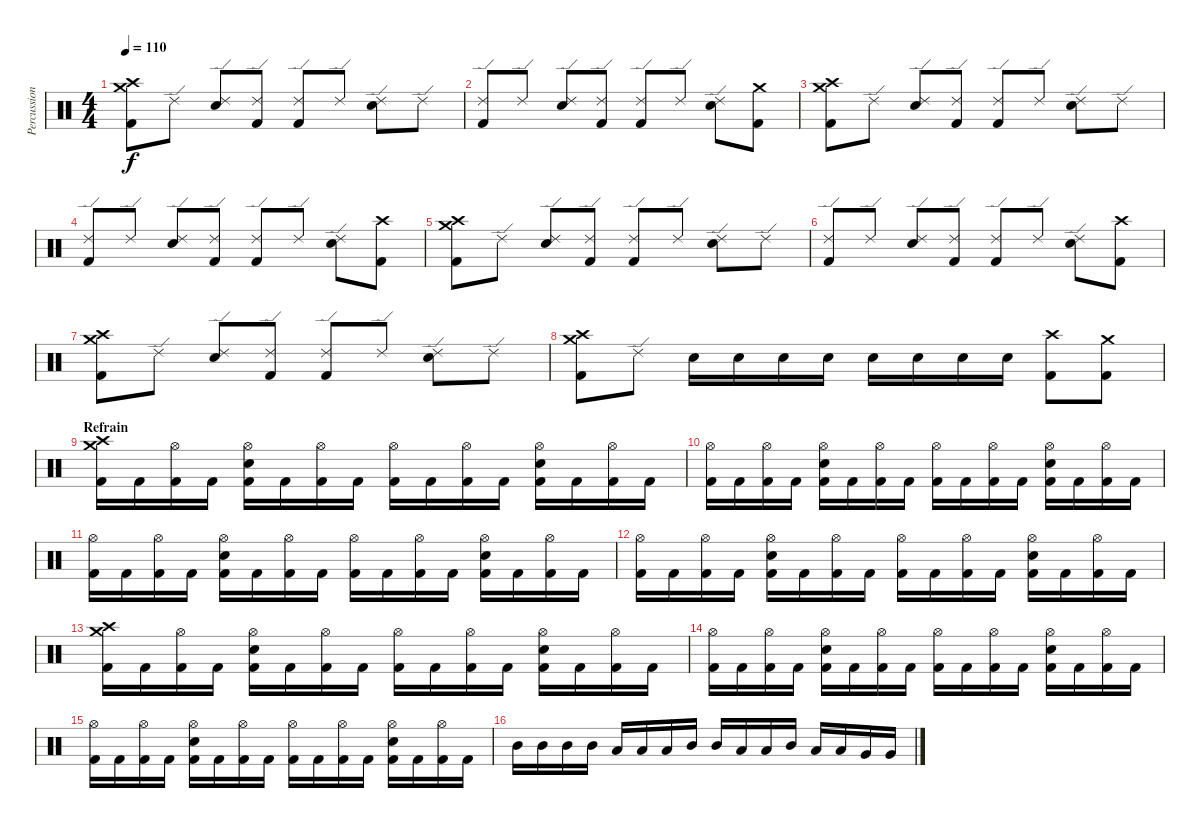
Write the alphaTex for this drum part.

\track ("Percussions" "Percussion") {instrument percussion}
\staff {score}
\articulation defaults
\ts (4 4)
\tempo 110
\clef neutral
\ks c
("Crash high (hit)" "Crash medium (hit)" "Kick (hit) 2").8{dy f} "Ride (edge) 2".8 ("Ride (edge) 2" "Electric Snare (hit)").8 ("Ride (edge) 2" "Kick (hit) 2").8 ("Ride (edge) 2" "Kick (hit) 2").8 "Ride (edge) 2".8 ("Ride (edge) 2" "Electric Snare (hit)").8 "Ride (edge) 2".8 |
("Ride (edge) 2" "Kick (hit) 2").8 "Ride (edge) 2".8 ("Ride (edge) 2" "Electric Snare (hit)").8 ("Ride (edge) 2" "Kick (hit) 2").8 ("Ride (edge) 2" "Kick (hit) 2").8 "Ride (edge) 2".8 ("Ride (edge) 2" "Electric Snare (hit)").8 ("Crash medium (hit)" "Kick (hit) 2").8 |
("Crash high (hit)" "Crash medium (hit)" "Kick (hit) 2").8 "Ride (edge) 2".8 ("Ride (edge) 2" "Electric Snare (hit)").8 ("Ride (edge) 2" "Kick (hit) 2").8 ("Ride (edge) 2" "Kick (hit) 2").8 "Ride (edge) 2".8 ("Ride (edge) 2" "Electric Snare (hit)").8 "Ride (edge) 2".8 |
("Ride (edge) 2" "Kick (hit) 2").8 "Ride (edge) 2".8 ("Ride (edge) 2" "Electric Snare (hit)").8 ("Ride (edge) 2" "Kick (hit) 2").8 ("Ride (edge) 2" "Kick (hit) 2").8 "Ride (edge) 2".8 ("Ride (edge) 2" "Electric Snare (hit)").8 ("Crash high (hit)" "Kick (hit) 2").8 |
("Crash high (hit)" "Crash medium (hit)" "Kick (hit) 2").8 "Ride (edge) 2".8 ("Ride (edge) 2" "Electric Snare (hit)").8 ("Ride (edge) 2" "Kick (hit) 2").8 ("Ride (edge) 2" "Kick (hit) 2").8 "Ride (edge) 2".8 ("Ride (edge) 2" "Electric Snare (hit)").8 "Ride (edge) 2".8 |
("Ride (edge) 2" "Kick (hit) 2").8 "Ride (edge) 2".8 ("Ride (edge) 2" "Electric Snare (hit)").8 ("Ride (edge) 2" "Kick (hit) 2").8 ("Ride (edge) 2" "Kick (hit) 2").8 "Ride (edge) 2".8 ("Ride (edge) 2" "Electric Snare (hit)").8 ("Crash high (hit)" "Kick (hit) 2").8 |
("Crash high (hit)" "Crash medium (hit)" "Kick (hit) 2").8 "Ride (edge) 2".8 ("Ride (edge) 2" "Electric Snare (hit)").8 ("Ride (edge) 2" "Kick (hit) 2").8 ("Ride (edge) 2" "Kick (hit) 2").8 "Ride (edge) 2".8 ("Ride (edge) 2" "Electric Snare (hit)").8 "Ride (edge) 2".8 |
("Crash medium (hit)" "Crash high (hit)" "Kick (hit) 2").8 "Ride (edge) 2".8 "Electric Snare (hit)".16 "Electric Snare (hit)".16 "Electric Snare (hit)".16 "Electric Snare (hit)".16 "Electric Snare (hit)".16 "Electric Snare (hit)".16 "Electric Snare (hit)".16 "Electric Snare (hit)".16 ("Crash high (hit)" "Kick (hit) 2").8 ("Crash medium (hit)" "Kick (hit) 2").8 |
\section ("" "Refrain")
("Crash high (hit)" "Crash medium (hit)" "Kick (hit) 2").16 "Kick (hit) 2".16 ("Hi-Hat (open)" "Kick (hit) 2").16 "Kick (hit) 2".16 ("Hi-Hat (open)" "Electric Snare (hit)" "Kick (hit) 2").16 "Kick (hit) 2".16 ("Hi-Hat (open)" "Kick (hit) 2").16 "Kick (hit) 2".16 ("Hi-Hat (open)" "Kick (hit) 2").16 "Kick (hit) 2".16 ("Hi-Hat (open)" "Kick (hit) 2").16 "Kick (hit) 2".16 ("Hi-Hat (open)" "Electric Snare (hit)" "Kick (hit) 2").16 "Kick (hit) 2".16 ("Hi-Hat (open)" "Kick (hit) 2").16 "Kick (hit) 2".16 |
("Hi-Hat (open)" "Kick (hit) 2").16 "Kick (hit) 2".16 ("Hi-Hat (open)" "Kick (hit) 2").16 "Kick (hit) 2".16 ("Hi-Hat (open)" "Electric Snare (hit)" "Kick (hit) 2").16 "Kick (hit) 2".16 ("Hi-Hat (open)" "Kick (hit) 2").16 "Kick (hit) 2".16 ("Hi-Hat (open)" "Kick (hit) 2").16 "Kick (hit) 2".16 ("Hi-Hat (open)" "Kick (hit) 2").16 "Kick (hit) 2".16 ("Hi-Hat (open)" "Electric Snare (hit)" "Kick (hit) 2").16 "Kick (hit) 2".16 ("Hi-Hat (open)" "Kick (hit) 2").16 "Kick (hit) 2".16 |
("Hi-Hat (open)" "Kick (hit) 2").16 "Kick (hit) 2".16 ("Hi-Hat (open)" "Kick (hit) 2").16 "Kick (hit) 2".16 ("Hi-Hat (open)" "Electric Snare (hit)" "Kick (hit) 2").16 "Kick (hit) 2".16 ("Hi-Hat (open)" "Kick (hit) 2").16 "Kick (hit) 2".16 ("Hi-Hat (open)" "Kick (hit) 2").16 "Kick (hit) 2".16 ("Hi-Hat (open)" "Kick (hit) 2").16 "Kick (hit) 2".16 ("Hi-Hat (open)" "Electric Snare (hit)" "Kick (hit) 2").16 "Kick (hit) 2".16 ("Hi-Hat (open)" "Kick (hit) 2").16 "Kick (hit) 2".16 |
("Hi-Hat (open)" "Kick (hit) 2").16 "Kick (hit) 2".16 ("Hi-Hat (open)" "Kick (hit) 2").16 "Kick (hit) 2".16 ("Hi-Hat (open)" "Electric Snare (hit)" "Kick (hit) 2").16 "Kick (hit) 2".16 ("Hi-Hat (open)" "Kick (hit) 2").16 "Kick (hit) 2".16 ("Hi-Hat (open)" "Kick (hit) 2").16 "Kick (hit) 2".16 ("Hi-Hat (open)" "Kick (hit) 2").16 "Kick (hit) 2".16 ("Hi-Hat (open)" "Electric Snare (hit)" "Kick (hit) 2").16 "Kick (hit) 2".16 ("Hi-Hat (open)" "Kick (hit) 2").16 "Kick (hit) 2".16 |
("Crash high (hit)" "Crash medium (hit)" "Kick (hit) 2").16 "Kick (hit) 2".16 ("Hi-Hat (open)" "Kick (hit) 2").16 "Kick (hit) 2".16 ("Hi-Hat (open)" "Electric Snare (hit)" "Kick (hit) 2").16 "Kick (hit) 2".16 ("Hi-Hat (open)" "Kick (hit) 2").16 "Kick (hit) 2".16 ("Hi-Hat (open)" "Kick (hit) 2").16 "Kick (hit) 2".16 ("Hi-Hat (open)" "Kick (hit) 2").16 "Kick (hit) 2".16 ("Hi-Hat (open)" "Electric Snare (hit)" "Kick (hit) 2").16 "Kick (hit) 2".16 ("Hi-Hat (open)" "Kick (hit) 2").16 "Kick (hit) 2".16 |
("Hi-Hat (open)" "Kick (hit) 2").16 "Kick (hit) 2".16 ("Hi-Hat (open)" "Kick (hit) 2").16 "Kick (hit) 2".16 ("Hi-Hat (open)" "Electric Snare (hit)" "Kick (hit) 2").16 "Kick (hit) 2".16 ("Hi-Hat (open)" "Kick (hit) 2").16 "Kick (hit) 2".16 ("Hi-Hat (open)" "Kick (hit) 2").16 "Kick (hit) 2".16 ("Hi-Hat (open)" "Kick (hit) 2").16 "Kick (hit) 2".16 ("Hi-Hat (open)" "Electric Snare (hit)" "Kick (hit) 2").16 "Kick (hit) 2".16 ("Hi-Hat (open)" "Kick (hit) 2").16 "Kick (hit) 2".16 |
("Hi-Hat (open)" "Kick (hit) 2").16 "Kick (hit) 2".16 ("Hi-Hat (open)" "Kick (hit) 2").16 "Kick (hit) 2".16 ("Hi-Hat (open)" "Electric Snare (hit)" "Kick (hit) 2").16 "Kick (hit) 2".16 ("Hi-Hat (open)" "Kick (hit) 2").16 "Kick (hit) 2".16 ("Hi-Hat (open)" "Kick (hit) 2").16 "Kick (hit) 2".16 ("Hi-Hat (open)" "Kick (hit) 2").16 "Kick (hit) 2".16 ("Hi-Hat (open)" "Electric Snare (hit)" "Kick (hit) 2").16 "Kick (hit) 2".16 ("Hi-Hat (open)" "Kick (hit) 2").16 "Kick (hit) 2".16 |
"Mid Tom (hit)".16 "Mid Tom (hit)".16 "Mid Tom (hit)".16 "Mid Tom (hit)".16 "Low Tom (hit)".16 "Low Tom (hit)".16 "Low Tom (hit)".16 "Mid Tom (hit)".16 "Mid Tom (hit)".16 "Low Tom (hit)".16 "Low Tom (hit)".16 "Mid Tom (hit)".16 "Low Tom (hit)".16 "Low Tom (hit)".16 "Very Low Tom (hit)".16 "Very Low Tom (hit)".16
